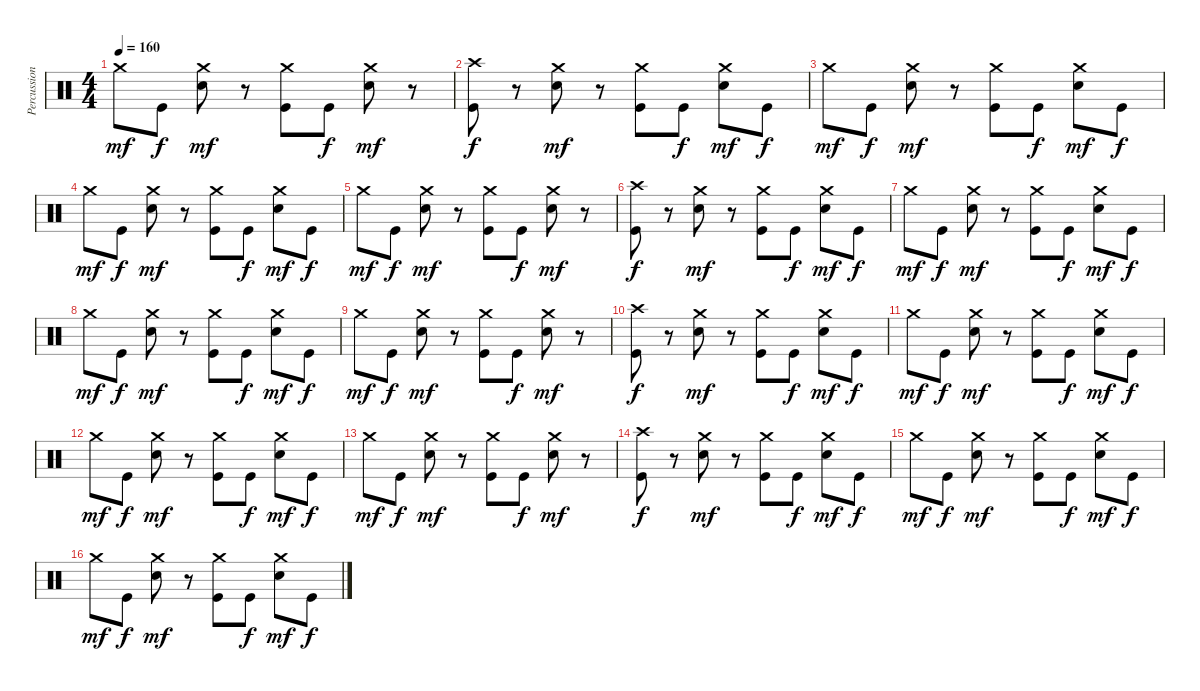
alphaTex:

\track ("Percussion" "Percussion") {instrument percussion}
\staff {score}
\articulation defaults
\ts (4 4)
\tempo 160
\clef neutral
\ks c "Crash medium (hit)".8{dy mf} "Kick (hit)".8{dy f}
("Electric Snare (hit)" "Crash medium (hit)").8{dy mf} r.8 ("Kick (hit)" "Crash medium (hit)").8 "Kick (hit)".8{dy f} ("Electric Snare (hit)" "Crash medium (hit)").8{dy mf} r.8 |
("Kick (hit)" "Crash high (hit)").8{dy f} r.8 ("Electric Snare (hit)" "Crash medium (hit)").8{dy mf} r.8 ("Kick (hit)" "Crash medium (hit)").8 "Kick (hit)".8{dy f} ("Electric Snare (hit)" "Crash medium (hit)").8{dy mf} "Kick (hit)".8{dy f} |
"Crash medium (hit)".8{dy mf} "Kick (hit)".8{dy f} ("Electric Snare (hit)" "Crash medium (hit)").8{dy mf} r.8 ("Kick (hit)" "Crash medium (hit)").8 "Kick (hit)".8{dy f} ("Electric Snare (hit)" "Crash medium (hit)").8{dy mf} "Kick (hit)".8{dy f} |
"Crash medium (hit)".8{dy mf} "Kick (hit)".8{dy f} ("Electric Snare (hit)" "Crash medium (hit)").8{dy mf} r.8 ("Kick (hit)" "Crash medium (hit)").8 "Kick (hit)".8{dy f} ("Electric Snare (hit)" "Crash medium (hit)").8{dy mf} "Kick (hit)".8{dy f} |
"Crash medium (hit)".8{dy mf} "Kick (hit)".8{dy f} ("Electric Snare (hit)" "Crash medium (hit)").8{dy mf} r.8 ("Kick (hit)" "Crash medium (hit)").8 "Kick (hit)".8{dy f} ("Electric Snare (hit)" "Crash medium (hit)").8{dy mf} r.8 |
("Kick (hit)" "Crash high (hit)").8{dy f} r.8 ("Electric Snare (hit)" "Crash medium (hit)").8{dy mf} r.8 ("Kick (hit)" "Crash medium (hit)").8 "Kick (hit)".8{dy f} ("Electric Snare (hit)" "Crash medium (hit)").8{dy mf} "Kick (hit)".8{dy f} |
"Crash medium (hit)".8{dy mf} "Kick (hit)".8{dy f} ("Electric Snare (hit)" "Crash medium (hit)").8{dy mf} r.8 ("Kick (hit)" "Crash medium (hit)").8 "Kick (hit)".8{dy f} ("Electric Snare (hit)" "Crash medium (hit)").8{dy mf} "Kick (hit)".8{dy f} |
"Crash medium (hit)".8{dy mf} "Kick (hit)".8{dy f} ("Electric Snare (hit)" "Crash medium (hit)").8{dy mf} r.8 ("Kick (hit)" "Crash medium (hit)").8 "Kick (hit)".8{dy f} ("Electric Snare (hit)" "Crash medium (hit)").8{dy mf} "Kick (hit)".8{dy f} |
"Crash medium (hit)".8{dy mf} "Kick (hit)".8{dy f} ("Electric Snare (hit)" "Crash medium (hit)").8{dy mf} r.8 ("Kick (hit)" "Crash medium (hit)").8 "Kick (hit)".8{dy f} ("Electric Snare (hit)" "Crash medium (hit)").8{dy mf} r.8 |
("Kick (hit)" "Crash high (hit)").8{dy f} r.8 ("Electric Snare (hit)" "Crash medium (hit)").8{dy mf} r.8 ("Kick (hit)" "Crash medium (hit)").8 "Kick (hit)".8{dy f} ("Electric Snare (hit)" "Crash medium (hit)").8{dy mf} "Kick (hit)".8{dy f} |
"Crash medium (hit)".8{dy mf} "Kick (hit)".8{dy f} ("Electric Snare (hit)" "Crash medium (hit)").8{dy mf} r.8 ("Kick (hit)" "Crash medium (hit)").8 "Kick (hit)".8{dy f} ("Electric Snare (hit)" "Crash medium (hit)").8{dy mf} "Kick (hit)".8{dy f} |
"Crash medium (hit)".8{dy mf} "Kick (hit)".8{dy f} ("Electric Snare (hit)" "Crash medium (hit)").8{dy mf} r.8 ("Kick (hit)" "Crash medium (hit)").8 "Kick (hit)".8{dy f} ("Electric Snare (hit)" "Crash medium (hit)").8{dy mf} "Kick (hit)".8{dy f} |
"Crash medium (hit)".8{dy mf} "Kick (hit)".8{dy f} ("Electric Snare (hit)" "Crash medium (hit)").8{dy mf} r.8 ("Kick (hit)" "Crash medium (hit)").8 "Kick (hit)".8{dy f} ("Electric Snare (hit)" "Crash medium (hit)").8{dy mf} r.8 |
("Kick (hit)" "Crash high (hit)").8{dy f} r.8 ("Electric Snare (hit)" "Crash medium (hit)").8{dy mf} r.8 ("Kick (hit)" "Crash medium (hit)").8 "Kick (hit)".8{dy f} ("Electric Snare (hit)" "Crash medium (hit)").8{dy mf} "Kick (hit)".8{dy f} |
"Crash medium (hit)".8{dy mf} "Kick (hit)".8{dy f} ("Electric Snare (hit)" "Crash medium (hit)").8{dy mf} r.8 ("Kick (hit)" "Crash medium (hit)").8 "Kick (hit)".8{dy f} ("Electric Snare (hit)" "Crash medium (hit)").8{dy mf} "Kick (hit)".8{dy f} |
"Crash medium (hit)".8{dy mf} "Kick (hit)".8{dy f} ("Electric Snare (hit)" "Crash medium (hit)").8{dy mf} r.8 ("Kick (hit)" "Crash medium (hit)").8 "Kick (hit)".8{dy f} ("Electric Snare (hit)" "Crash medium (hit)").8{dy mf} "Kick (hit)".8{dy f}
